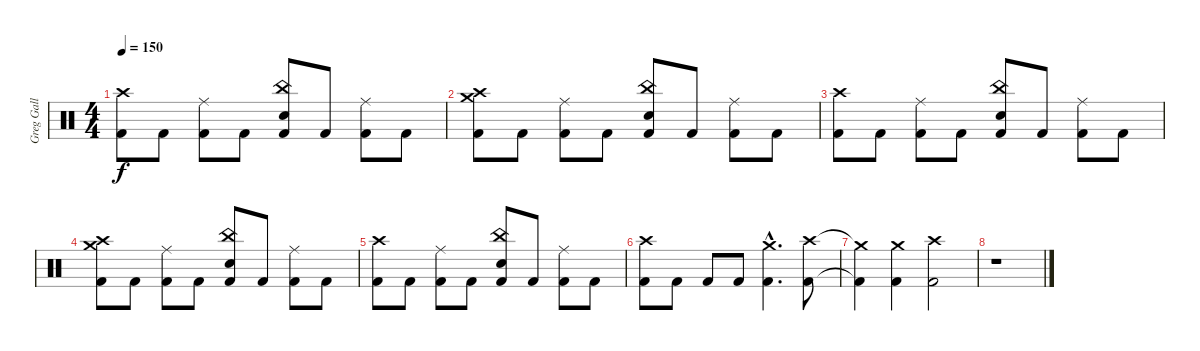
\track ("Greg Gall" "Greg Gall") {instrument percussion}
\staff {score}
\articulation defaults
\ts (4 4)
\tempo 150
\clef neutral
\ks c
("Crash high (hit)" "Kick (hit) 2").8{dy f} "Kick (hit) 2".8 ("Ride (middle)" "Kick (hit) 2").8 "Kick (hit) 2".8 ("China (hit)" "Electric Snare (hit)" "Kick (hit) 2").8 "Kick (hit) 2".8 ("Ride (middle)" "Kick (hit) 2").8 "Kick (hit) 2".8 |
("Crash high (hit)" "Crash medium (hit)" "Kick (hit) 2").8 "Kick (hit) 2".8 ("Ride (middle)" "Kick (hit) 2").8 "Kick (hit) 2".8 ("China (hit)" "Electric Snare (hit)" "Kick (hit) 2").8 "Kick (hit) 2".8 ("Ride (middle)" "Kick (hit) 2").8 "Kick (hit) 2".8 |
("Crash high (hit)" "Kick (hit) 2").8 "Kick (hit) 2".8 ("Ride (middle)" "Kick (hit) 2").8 "Kick (hit) 2".8 ("China (hit)" "Electric Snare (hit)" "Kick (hit) 2").8 "Kick (hit) 2".8 ("Ride (middle)" "Kick (hit) 2").8 "Kick (hit) 2".8 |
("Crash high (hit)" "Crash medium (hit)" "Kick (hit) 2").8 "Kick (hit) 2".8 ("Ride (middle)" "Kick (hit) 2").8 "Kick (hit) 2".8 ("China (hit)" "Electric Snare (hit)" "Kick (hit) 2").8 "Kick (hit) 2".8 ("Ride (middle)" "Kick (hit) 2").8 "Kick (hit) 2".8 |
("Crash high (hit)" "Kick (hit) 2").8 "Kick (hit) 2".8 ("Ride (middle)" "Kick (hit) 2").8 "Kick (hit) 2".8 ("China (hit)" "Electric Snare (hit)" "Kick (hit) 2").8 "Kick (hit) 2".8 ("Ride (middle)" "Kick (hit) 2").8 "Kick (hit) 2".8 |
("Crash high (hit)" "Kick (hit) 2").8 "Kick (hit) 2".8 "Kick (hit) 2".8 "Kick (hit) 2".8 ("Crash medium (hit)"{hac} "Kick (hit) 2"{hac}).4{d} ("Crash high (hit)" "Kick (hit) 2").8 |
("Crash medium (hit)"{t} "Kick (hit) 2"{t}).4 ("Crash medium (hit)" "Kick (hit) 2").4 ("Crash high (hit)" "Kick (hit) 2").2 |
r.1
